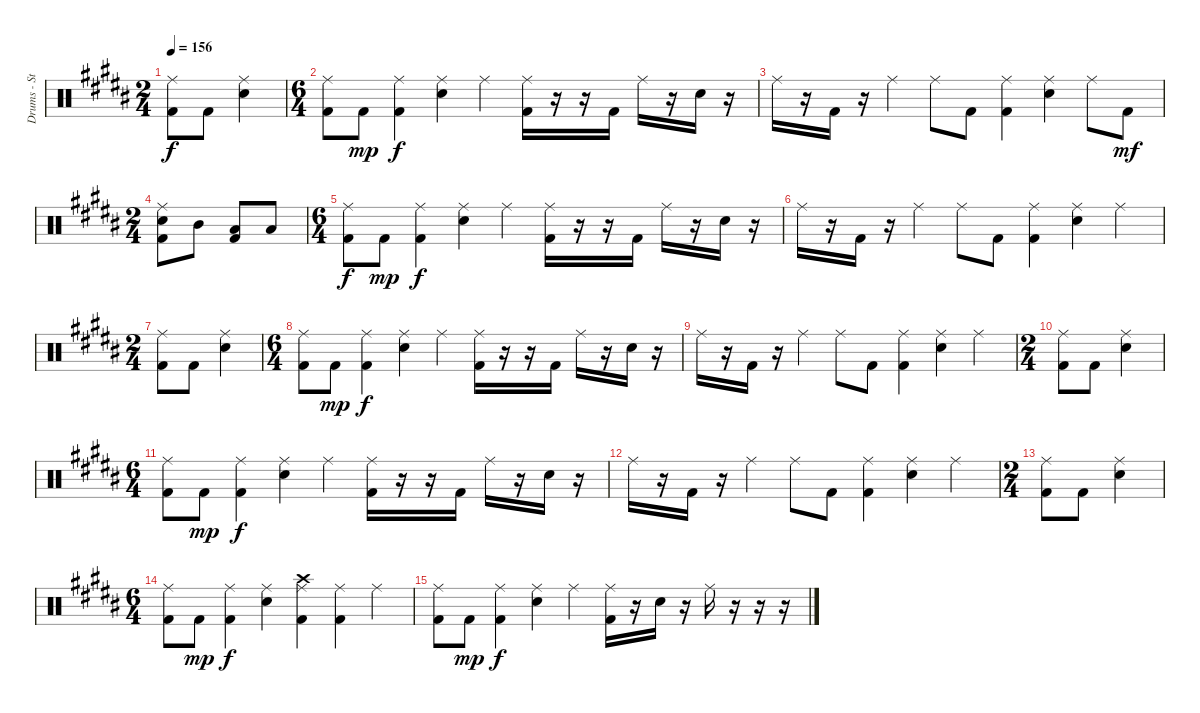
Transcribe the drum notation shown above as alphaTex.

\track ("Drums - Steve Judd" "Drums - St") {instrument percussion}
\staff {score}
\articulation defaults
\ts (2 4)
\tempo 156
\clef neutral
\ks b
("Ride (middle)" "Kick (hit) 2").8{dy f} "Kick (hit) 2".8 ("Electric Snare (hit)" "Ride (middle)").4 |
\ts (6 4)
("Ride (middle)" "Kick (hit) 2").8 "Kick (hit) 2".8{dy mp} ("Ride (middle)" "Kick (hit) 2").4{dy f} ("Electric Snare (hit)" "Ride (middle)").4 "Ride (middle)".4 ("Ride (middle)" "Kick (hit) 2").16 r.16 r.16 "Kick (hit) 2".16 "Ride (middle)".16 r.16 "Electric Snare (hit)".16 r.16 |
"Ride (middle)".16 r.16 "Kick (hit) 2".16 r.16 "Ride (middle)".4 "Ride (middle)".8 "Kick (hit) 2".8 ("Ride (middle)" "Kick (hit) 2").4 ("Electric Snare (hit)" "Ride (middle)").4 "Ride (middle)".8 "Kick (hit) 2".8{dy mf} |
\ts (2 4)
("Electric Snare (hit)" "Ride (middle)" "Kick (hit) 2").8 "Mid Tom (hit)".8 ("Low Tom (hit)" "Kick (hit) 2").8 "Low Floor Tom (hit)".8 |
\ts (6 4)
("Ride (middle)" "Kick (hit) 2").8{dy f} "Kick (hit) 2".8{dy mp} ("Ride (middle)" "Kick (hit) 2").4{dy f} ("Electric Snare (hit)" "Ride (middle)").4 "Ride (middle)".4 ("Ride (middle)" "Kick (hit) 2").16 r.16 r.16 "Kick (hit) 2".16 "Ride (middle)".16 r.16 "Electric Snare (hit)".16 r.16 |
"Ride (middle)".16 r.16 "Kick (hit) 2".16 r.16 "Ride (middle)".4 "Ride (middle)".8 "Kick (hit) 2".8 ("Ride (middle)" "Kick (hit) 2").4 ("Electric Snare (hit)" "Ride (middle)").4 "Ride (middle)".4 |
\ts (2 4)
("Ride (middle)" "Kick (hit) 2").8 "Kick (hit) 2".8 ("Electric Snare (hit)" "Ride (middle)").4 |
\ts (6 4)
("Ride (middle)" "Kick (hit) 2").8 "Kick (hit) 2".8{dy mp} ("Ride (middle)" "Kick (hit) 2").4{dy f} ("Electric Snare (hit)" "Ride (middle)").4 "Ride (middle)".4 ("Ride (middle)" "Kick (hit) 2").16 r.16 r.16 "Kick (hit) 2".16 "Ride (middle)".16 r.16 "Electric Snare (hit)".16 r.16 |
"Ride (middle)".16 r.16 "Kick (hit) 2".16 r.16 "Ride (middle)".4 "Ride (middle)".8 "Kick (hit) 2".8 ("Ride (middle)" "Kick (hit) 2").4 ("Electric Snare (hit)" "Ride (middle)").4 "Ride (middle)".4 |
\ts (2 4)
("Ride (middle)" "Kick (hit) 2").8 "Kick (hit) 2".8 ("Electric Snare (hit)" "Ride (middle)").4 |
\ts (6 4)
("Ride (middle)" "Kick (hit) 2").8 "Kick (hit) 2".8{dy mp} ("Ride (middle)" "Kick (hit) 2").4{dy f} ("Electric Snare (hit)" "Ride (middle)").4 "Ride (middle)".4 ("Ride (middle)" "Kick (hit) 2").16 r.16 r.16 "Kick (hit) 2".16 "Ride (middle)".16 r.16 "Electric Snare (hit)".16 r.16 |
"Ride (middle)".16 r.16 "Kick (hit) 2".16 r.16 "Ride (middle)".4 "Ride (middle)".8 "Kick (hit) 2".8 ("Ride (middle)" "Kick (hit) 2").4 ("Electric Snare (hit)" "Ride (middle)").4 "Ride (middle)".4 |
\ts (2 4)
("Ride (middle)" "Kick (hit) 2").8 "Kick (hit) 2".8 ("Electric Snare (hit)" "Ride (middle)").4 |
\ts (6 4)
("Ride (middle)" "Kick (hit) 2").8 "Kick (hit) 2".8{dy mp} ("Ride (middle)" "Kick (hit) 2").4{dy f} ("Electric Snare (hit)" "Ride (middle)").4 ("Crash high (hit)" "Ride (middle)" "Kick (hit) 2").4 ("Ride (middle)" "Kick (hit) 2").4 "Ride (middle)".4 |
("Ride (middle)" "Kick (hit) 2").8 "Kick (hit) 2".8{dy mp} ("Ride (middle)" "Kick (hit) 2").4{dy f} ("Electric Snare (hit)" "Ride (middle)").4 "Ride (middle)".4 ("Ride (middle)" "Kick (hit) 2").16 r.16 "Electric Snare (hit)".16 r.16 "Ride (middle)".16 r.16 r.16 r.16
